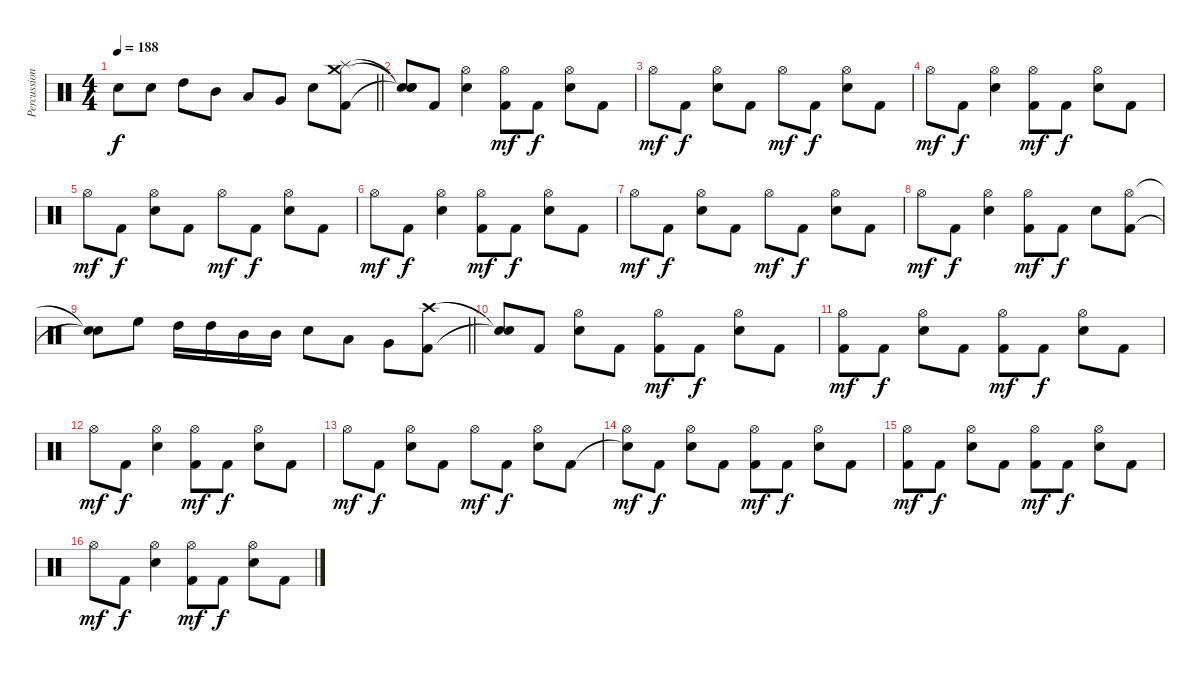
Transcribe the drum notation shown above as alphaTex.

\track ("Percussion" "Percussion") {instrument percussion}
\staff {score}
\articulation defaults
\ts (4 4)
\tempo 188
\clef neutral
\barLineRight lightlight
\ks c "Snare (hit)"{t}.8{dy f} "Electric Snare (hit)".8 "High Tom (hit)".8 "Mid Tom (hit)".8 "Low Tom (hit)".8 "Very Low Tom (hit)".8 "Electric Snare (hit)".8
("Splash (hit)" "Crash medium (hit)" "Kick (hit) 2").8 |
("Snare (hit)"{t} "Snare (hit)"{t} "Snare (hit)"{t}).8 "Kick (hit) 2".8 ("Hi-Hat (open)" "Electric Snare (hit)").4 ("Hi-Hat (open)" "Kick (hit) 2").8{dy mf} "Kick (hit) 2".8{dy f} ("Hi-Hat (open)" "Electric Snare (hit)").8 "Kick (hit) 2".8 |
"Hi-Hat (open)".8{dy mf} "Kick (hit) 2".8{dy f} ("Hi-Hat (open)" "Electric Snare (hit)").8 "Kick (hit) 2".8 "Hi-Hat (open)".8{dy mf} "Kick (hit) 2".8{dy f} ("Hi-Hat (open)" "Electric Snare (hit)").8 "Kick (hit) 2".8 |
"Hi-Hat (open)".8{dy mf} "Kick (hit) 2".8{dy f} ("Hi-Hat (open)" "Electric Snare (hit)").4 ("Hi-Hat (open)" "Kick (hit) 2").8{dy mf} "Kick (hit) 2".8{dy f} ("Hi-Hat (open)" "Electric Snare (hit)").8 "Kick (hit) 2".8 |
"Hi-Hat (open)".8{dy mf} "Kick (hit) 2".8{dy f} ("Hi-Hat (open)" "Electric Snare (hit)").8 "Kick (hit) 2".8 "Hi-Hat (open)".8{dy mf} "Kick (hit) 2".8{dy f} ("Hi-Hat (open)" "Electric Snare (hit)").8 "Kick (hit) 2".8 |
"Hi-Hat (open)".8{dy mf} "Kick (hit) 2".8{dy f} ("Hi-Hat (open)" "Electric Snare (hit)").4 ("Hi-Hat (open)" "Kick (hit) 2").8{dy mf} "Kick (hit) 2".8{dy f} ("Hi-Hat (open)" "Electric Snare (hit)").8 "Kick (hit) 2".8 |
"Hi-Hat (open)".8{dy mf} "Kick (hit) 2".8{dy f} ("Hi-Hat (open)" "Electric Snare (hit)").8 "Kick (hit) 2".8 "Hi-Hat (open)".8{dy mf} "Kick (hit) 2".8{dy f} ("Hi-Hat (open)" "Electric Snare (hit)").8 "Kick (hit) 2".8 |
"Hi-Hat (open)".8{dy mf} "Kick (hit) 2".8{dy f} ("Hi-Hat (open)" "Electric Snare (hit)").4 ("Hi-Hat (open)" "Kick (hit) 2").8{dy mf} "Kick (hit) 2".8{dy f} "Electric Snare (hit)".8 ("Hi-Hat (open)" "Kick (hit) 2").8 |
\barLineRight lightlight
("Snare (hit)"{t} "Snare (hit)"{t}).8 "High Floor Tom (hit)".8 "High Tom (hit)".16 "High Tom (hit)".16 "Mid Tom (hit)".16 "Mid Tom (hit)".16 "Electric Snare (hit)".8 "Low Tom (hit)".8 "Very Low Tom (hit)".8 ("Crash high (hit)" "Kick (hit) 2").8 |
("Snare (hit)"{t} "Snare (hit)"{t}).8 "Kick (hit) 2".8 ("Hi-Hat (open)" "Electric Snare (hit)").8 "Kick (hit) 2".8 ("Hi-Hat (open)" "Kick (hit) 2").8{dy mf} "Kick (hit) 2".8{dy f} ("Hi-Hat (open)" "Electric Snare (hit)").8 "Kick (hit) 2".8 |
("Hi-Hat (open)" "Kick (hit) 2").8{dy mf} "Kick (hit) 2".8{dy f} ("Hi-Hat (open)" "Electric Snare (hit)").8 "Kick (hit) 2".8 ("Hi-Hat (open)" "Kick (hit) 2").8{dy mf} "Kick (hit) 2".8{dy f} ("Hi-Hat (open)" "Electric Snare (hit)").8 "Kick (hit) 2".8 |
"Hi-Hat (open)".8{dy mf} "Kick (hit) 2".8{dy f} ("Hi-Hat (open)" "Electric Snare (hit)").4 ("Hi-Hat (open)" "Kick (hit) 2").8{dy mf} "Kick (hit) 2".8{dy f} ("Hi-Hat (open)" "Electric Snare (hit)").8 "Kick (hit) 2".8 |
"Hi-Hat (open)".8{dy mf} "Kick (hit) 2".8{dy f} ("Hi-Hat (open)" "Electric Snare (hit)").8 "Kick (hit) 2".8 "Hi-Hat (open)".8{dy mf} "Kick (hit) 2".8{dy f} ("Hi-Hat (open)" "Electric Snare (hit)").8 "Kick (hit) 2".8 |
("Snare (hit)"{t} "Hi-Hat (open)").8{dy mf} "Kick (hit) 2".8{dy f} ("Hi-Hat (open)" "Electric Snare (hit)").8 "Kick (hit) 2".8 ("Hi-Hat (open)" "Kick (hit) 2").8{dy mf} "Kick (hit) 2".8{dy f} ("Hi-Hat (open)" "Electric Snare (hit)").8 "Kick (hit) 2".8 |
("Hi-Hat (open)" "Kick (hit) 2").8{dy mf} "Kick (hit) 2".8{dy f} ("Hi-Hat (open)" "Electric Snare (hit)").8 "Kick (hit) 2".8 ("Hi-Hat (open)" "Kick (hit) 2").8{dy mf} "Kick (hit) 2".8{dy f} ("Hi-Hat (open)" "Electric Snare (hit)").8 "Kick (hit) 2".8 |
"Hi-Hat (open)".8{dy mf} "Kick (hit) 2".8{dy f} ("Hi-Hat (open)" "Electric Snare (hit)").4 ("Hi-Hat (open)" "Kick (hit) 2").8{dy mf} "Kick (hit) 2".8{dy f} ("Hi-Hat (open)" "Electric Snare (hit)").8 "Kick (hit) 2".8
